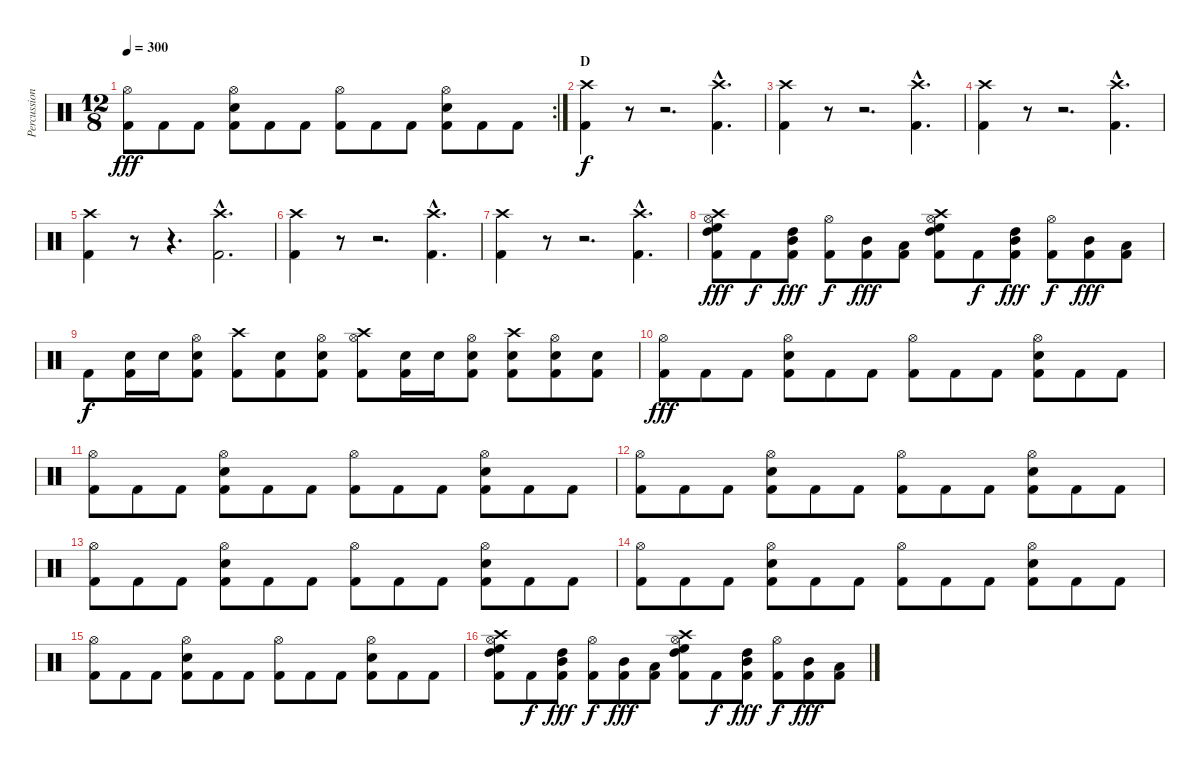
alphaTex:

\track ("Percussion" "Percussion") {instrument percussion}
\staff {score}
\articulation defaults
\rc 2
\ts (12 8)
\tempo 300
\clef neutral
\ks c
("Hi-Hat (open)" "Kick (hit) 2").8{dy fff} "Kick (hit) 2".8 "Kick (hit) 2".8 ("Hi-Hat (open)" "Snare (hit) 2" "Kick (hit) 2").8 "Kick (hit) 2".8 "Kick (hit) 2".8 ("Hi-Hat (open)" "Kick (hit) 2").8 "Kick (hit) 2".8 "Kick (hit) 2".8 ("Hi-Hat (open)" "Snare (hit) 2" "Kick (hit) 2").8 "Kick (hit) 2".8 "Kick (hit) 2".8 |
\section ("" "D")
("Crash high (hit)" "Kick (hit) 2").4{dy f} r.8{volume 0} r.2{d} ("Crash high (hit)"{hac} "Kick (hit) 2"{hac}).4{d volume 16} |
("Crash high (hit)" "Kick (hit) 2").4 r.8{volume 0} r.2{d} ("Crash high (hit)"{hac} "Kick (hit) 2"{hac}).4{d volume 16} |
("Crash high (hit)" "Kick (hit) 2").4 r.8{volume 0} r.2{d} ("Crash high (hit)"{hac} "Kick (hit) 2"{hac}).4{d volume 16} |
("Crash high (hit)" "Kick (hit) 2").4 r.8{volume 0} r.4{d} ("Crash high (hit)"{hac} "Kick (hit) 2"{hac}).2{d volume 16} |
("Crash high (hit)" "Kick (hit) 2").4 r.8{volume 0} r.2{d} ("Crash high (hit)"{hac} "Kick (hit) 2"{hac}).4{d volume 16} |
("Crash high (hit)" "Kick (hit) 2").4 r.8{volume 0} r.2{d} ("Crash high (hit)"{hac} "Kick (hit) 2"{hac}).4{d volume 16} |
("Crash high (hit)" "Hi-Hat (open)" "High Floor Tom (hit)" "High Tom (hit)" "Kick (hit) 2").8{dy fff} "Kick (hit) 2".8{dy f} ("High Tom (hit)" "Mid Tom (hit)" "Kick (hit) 2").8{dy fff} ("Hi-Hat (open)" "Kick (hit) 2").8{dy f} ("Mid Tom (hit)" "Kick (hit) 2").8{dy fff} ("Low Tom (hit)" "Kick (hit) 2").8 ("Crash high (hit)" "Hi-Hat (open)" "High Floor Tom (hit)" "High Tom (hit)" "Kick (hit) 2").8 "Kick (hit) 2".8{dy f} ("High Tom (hit)" "Mid Tom (hit)" "Kick (hit) 2").8{dy fff} ("Hi-Hat (open)" "Kick (hit) 2").8{dy f} ("Mid Tom (hit)" "Kick (hit) 2").8{dy fff} ("Low Tom (hit)" "Kick (hit) 2").8 |
"Kick (hit) 2".8{dy f} ("Snare (hit) 2" "Kick (hit) 2").16 "Snare (hit) 2".16 ("Hi-Hat (open)" "Snare (hit) 2" "Kick (hit) 2").8 ("Crash high (hit)" "Kick (hit) 2").8 ("Snare (hit) 2" "Kick (hit) 2").8 ("Hi-Hat (open)" "Snare (hit) 2" "Kick (hit) 2").8 ("Crash high (hit)" "Hi-Hat (open)" "Kick (hit) 2").8 ("Snare (hit) 2" "Kick (hit) 2").16 "Snare (hit) 2".16 ("Hi-Hat (open)" "Snare (hit) 2" "Kick (hit) 2").8 ("Crash high (hit)" "Snare (hit) 2" "Kick (hit) 2").8 ("Hi-Hat (open)" "Snare (hit) 2" "Kick (hit) 2").8 ("Snare (hit) 2" "Kick (hit) 2").8 |
("Hi-Hat (open)" "Kick (hit) 2").8{dy fff} "Kick (hit) 2".8 "Kick (hit) 2".8 ("Hi-Hat (open)" "Snare (hit) 2" "Kick (hit) 2").8 "Kick (hit) 2".8 "Kick (hit) 2".8 ("Hi-Hat (open)" "Kick (hit) 2").8 "Kick (hit) 2".8 "Kick (hit) 2".8 ("Hi-Hat (open)" "Snare (hit) 2" "Kick (hit) 2").8 "Kick (hit) 2".8 "Kick (hit) 2".8 |
("Hi-Hat (open)" "Kick (hit) 2").8 "Kick (hit) 2".8 "Kick (hit) 2".8 ("Hi-Hat (open)" "Snare (hit) 2" "Kick (hit) 2").8 "Kick (hit) 2".8 "Kick (hit) 2".8 ("Hi-Hat (open)" "Kick (hit) 2").8 "Kick (hit) 2".8 "Kick (hit) 2".8 ("Hi-Hat (open)" "Snare (hit) 2" "Kick (hit) 2").8 "Kick (hit) 2".8 "Kick (hit) 2".8 |
("Hi-Hat (open)" "Kick (hit) 2").8 "Kick (hit) 2".8 "Kick (hit) 2".8 ("Hi-Hat (open)" "Snare (hit) 2" "Kick (hit) 2").8 "Kick (hit) 2".8 "Kick (hit) 2".8 ("Hi-Hat (open)" "Kick (hit) 2").8 "Kick (hit) 2".8 "Kick (hit) 2".8 ("Hi-Hat (open)" "Snare (hit) 2" "Kick (hit) 2").8 "Kick (hit) 2".8 "Kick (hit) 2".8 |
("Hi-Hat (open)" "Kick (hit) 2").8 "Kick (hit) 2".8 "Kick (hit) 2".8 ("Hi-Hat (open)" "Snare (hit) 2" "Kick (hit) 2").8 "Kick (hit) 2".8 "Kick (hit) 2".8 ("Hi-Hat (open)" "Kick (hit) 2").8 "Kick (hit) 2".8 "Kick (hit) 2".8 ("Hi-Hat (open)" "Snare (hit) 2" "Kick (hit) 2").8 "Kick (hit) 2".8 "Kick (hit) 2".8 |
("Hi-Hat (open)" "Kick (hit) 2").8 "Kick (hit) 2".8 "Kick (hit) 2".8 ("Hi-Hat (open)" "Snare (hit) 2" "Kick (hit) 2").8 "Kick (hit) 2".8 "Kick (hit) 2".8 ("Hi-Hat (open)" "Kick (hit) 2").8 "Kick (hit) 2".8 "Kick (hit) 2".8 ("Hi-Hat (open)" "Snare (hit) 2" "Kick (hit) 2").8 "Kick (hit) 2".8 "Kick (hit) 2".8 |
("Hi-Hat (open)" "Kick (hit) 2").8 "Kick (hit) 2".8 "Kick (hit) 2".8 ("Hi-Hat (open)" "Snare (hit) 2" "Kick (hit) 2").8 "Kick (hit) 2".8 "Kick (hit) 2".8 ("Hi-Hat (open)" "Kick (hit) 2").8 "Kick (hit) 2".8 "Kick (hit) 2".8 ("Hi-Hat (open)" "Snare (hit) 2" "Kick (hit) 2").8 "Kick (hit) 2".8 "Kick (hit) 2".8 |
("Crash high (hit)" "Hi-Hat (open)" "High Floor Tom (hit)" "High Tom (hit)" "Kick (hit) 2").8 "Kick (hit) 2".8{dy f} ("High Tom (hit)" "Mid Tom (hit)" "Kick (hit) 2").8{dy fff} ("Hi-Hat (open)" "Kick (hit) 2").8{dy f} ("Mid Tom (hit)" "Kick (hit) 2").8{dy fff} ("Low Tom (hit)" "Kick (hit) 2").8 ("Crash high (hit)" "Hi-Hat (open)" "High Floor Tom (hit)" "High Tom (hit)" "Kick (hit) 2").8 "Kick (hit) 2".8{dy f} ("High Tom (hit)" "Mid Tom (hit)" "Kick (hit) 2").8{dy fff} ("Hi-Hat (open)" "Kick (hit) 2").8{dy f} ("Mid Tom (hit)" "Kick (hit) 2").8{dy fff} ("Low Tom (hit)" "Kick (hit) 2").8
